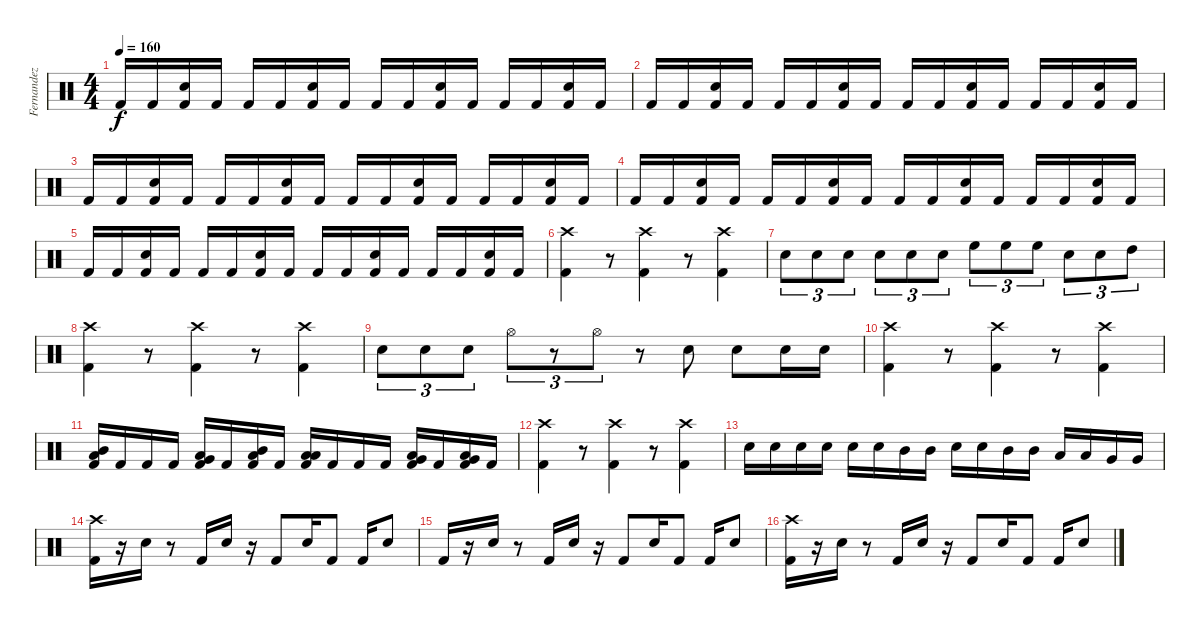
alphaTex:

\track ("Fernandez" "Fernandez") {instrument percussion}
\staff {score}
\articulation defaults
\ts (4 4)
\tempo 160
\clef neutral
\ks c "Kick (hit) 2".16{dy f} "Kick (hit) 2".16
("Snare (hit) 2" "Kick (hit) 2").16 "Kick (hit) 2".16 "Kick (hit) 2".16 "Kick (hit) 2".16 ("Snare (hit) 2" "Kick (hit) 2").16 "Kick (hit) 2".16 "Kick (hit) 2".16 "Kick (hit) 2".16 ("Snare (hit) 2" "Kick (hit) 2").16 "Kick (hit) 2".16 "Kick (hit) 2".16 "Kick (hit) 2".16 ("Snare (hit) 2" "Kick (hit) 2").16 "Kick (hit) 2".16 |
"Kick (hit) 2".16 "Kick (hit) 2".16 ("Snare (hit) 2" "Kick (hit) 2").16 "Kick (hit) 2".16 "Kick (hit) 2".16 "Kick (hit) 2".16 ("Snare (hit) 2" "Kick (hit) 2").16 "Kick (hit) 2".16 "Kick (hit) 2".16 "Kick (hit) 2".16 ("Snare (hit) 2" "Kick (hit) 2").16 "Kick (hit) 2".16 "Kick (hit) 2".16 "Kick (hit) 2".16 ("Snare (hit) 2" "Kick (hit) 2").16 "Kick (hit) 2".16 |
"Kick (hit) 2".16 "Kick (hit) 2".16 ("Snare (hit) 2" "Kick (hit) 2").16 "Kick (hit) 2".16 "Kick (hit) 2".16 "Kick (hit) 2".16 ("Snare (hit) 2" "Kick (hit) 2").16 "Kick (hit) 2".16 "Kick (hit) 2".16 "Kick (hit) 2".16 ("Snare (hit) 2" "Kick (hit) 2").16 "Kick (hit) 2".16 "Kick (hit) 2".16 "Kick (hit) 2".16 ("Snare (hit) 2" "Kick (hit) 2").16 "Kick (hit) 2".16 |
"Kick (hit) 2".16 "Kick (hit) 2".16 ("Snare (hit) 2" "Kick (hit) 2").16 "Kick (hit) 2".16 "Kick (hit) 2".16 "Kick (hit) 2".16 ("Snare (hit) 2" "Kick (hit) 2").16 "Kick (hit) 2".16 "Kick (hit) 2".16 "Kick (hit) 2".16 ("Snare (hit) 2" "Kick (hit) 2").16 "Kick (hit) 2".16 "Kick (hit) 2".16 "Kick (hit) 2".16 ("Snare (hit) 2" "Kick (hit) 2").16 "Kick (hit) 2".16 |
"Kick (hit) 2".16 "Kick (hit) 2".16 ("Snare (hit) 2" "Kick (hit) 2").16 "Kick (hit) 2".16 "Kick (hit) 2".16 "Kick (hit) 2".16 ("Snare (hit) 2" "Kick (hit) 2").16 "Kick (hit) 2".16 "Kick (hit) 2".16 "Kick (hit) 2".16 ("Snare (hit) 2" "Kick (hit) 2").16 "Kick (hit) 2".16 "Kick (hit) 2".16 "Kick (hit) 2".16 ("Snare (hit) 2" "Kick (hit) 2").16 "Kick (hit) 2".16 |
("Kick (hit) 2" "Crash high (hit)").4 r.8 ("Kick (hit) 2" "Crash high (hit)").4 r.8 ("Kick (hit) 2" "Crash high (hit)").4 |
"Snare (hit) 2".8{tu (3 2)} "Snare (hit) 2".8{tu (3 2)} "Snare (hit) 2".8{tu (3 2)} "Snare (hit) 2".8{tu (3 2)} "Snare (hit) 2".8{tu (3 2)} "Snare (hit) 2".8{tu (3 2)} "High Floor Tom (hit)".8{tu (3 2)} "High Floor Tom (hit)".8{tu (3 2)} "High Floor Tom (hit)".8{tu (3 2)} "Snare (hit) 2".8{tu (3 2)} "Snare (hit) 2".8{tu (3 2)} "High Tom (hit)".8{tu (3 2)} |
("Kick (hit) 2" "Crash high (hit)").4 r.8 ("Kick (hit) 2" "Crash high (hit)").4 r.8 ("Crash high (hit)" "Kick (hit) 2").4 |
"Snare (hit) 2".8{tu (3 2)} "Snare (hit) 2".8{tu (3 2)} "Snare (hit) 2".8{tu (3 2)} "Hi-Hat (open)".8{tu (3 2)} r.8{tu (3 2)} "Hi-Hat (open)".8{tu (3 2)} r.8 "Snare (hit) 2".8 "Snare (hit) 2".8 "Snare (hit) 2".16 "Snare (hit) 2".16 |
("Kick (hit) 2" "Crash high (hit)").4 r.8 ("Kick (hit) 2" "Crash high (hit)").4 r.8 ("Kick (hit) 2" "Crash high (hit)").4 |
("Mid Tom (hit)" "Low Tom (hit)" "Kick (hit) 2").16 "Kick (hit) 2".16 "Kick (hit) 2".16 "Kick (hit) 2".16 ("Very Low Tom (hit)" "Low Tom (hit)" "Kick (hit) 2").16 "Kick (hit) 2".16 ("Low Tom (hit)" "Mid Tom (hit)" "Kick (hit) 2").16 "Kick (hit) 2".16 ("Low Tom (hit)" "Low Floor Tom (hit)" "Kick (hit) 2").16 "Kick (hit) 2".16 "Kick (hit) 2".16 "Kick (hit) 2".16 ("Very Low Tom (hit)" "Low Floor Tom (hit)" "Kick (hit) 2").16 "Kick (hit) 2".16 ("Very Low Tom (hit)" "Low Tom (hit)" "Kick (hit) 2").16 "Kick (hit) 2".16 |
("Kick (hit) 2" "Crash high (hit)").4 r.8 ("Kick (hit) 2" "Crash high (hit)").4 r.8 ("Kick (hit) 2" "Crash high (hit)").4 |
"Snare (hit) 2".16 "Snare (hit) 2".16 "Snare (hit) 2".16 "Snare (hit) 2".16 "Snare (hit) 2".16 "Snare (hit) 2".16 "Mid Tom (hit)".16 "Mid Tom (hit)".16 "Snare (hit) 2".16 "Snare (hit) 2".16 "Mid Tom (hit)".16 "Mid Tom (hit)".16 "Low Tom (hit)".16 "Low Tom (hit)".16 "Very Low Tom (hit)".16 "Very Low Tom (hit)".16 |
("Kick (hit) 2" "Crash high (hit)").16 r.16 "Snare (hit) 2".16 r.8 "Kick (hit) 2".16 "Snare (hit) 2".16 r.16 "Kick (hit) 2".8 "Snare (hit) 2".16 "Kick (hit) 2".8 "Kick (hit) 2".16 "Snare (hit) 2".8 |
"Kick (hit) 2".16 r.16 "Snare (hit) 2".16 r.8 "Kick (hit) 2".16 "Snare (hit) 2".16 r.16 "Kick (hit) 2".8 "Snare (hit) 2".16 "Kick (hit) 2".8 "Kick (hit) 2".16 "Snare (hit) 2".8 |
("Kick (hit) 2" "Crash high (hit)").16 r.16 "Snare (hit) 2".16 r.8 "Kick (hit) 2".16 "Snare (hit) 2".16 r.16 "Kick (hit) 2".8 "Snare (hit) 2".16 "Kick (hit) 2".8 "Kick (hit) 2".16 "Snare (hit) 2".8
